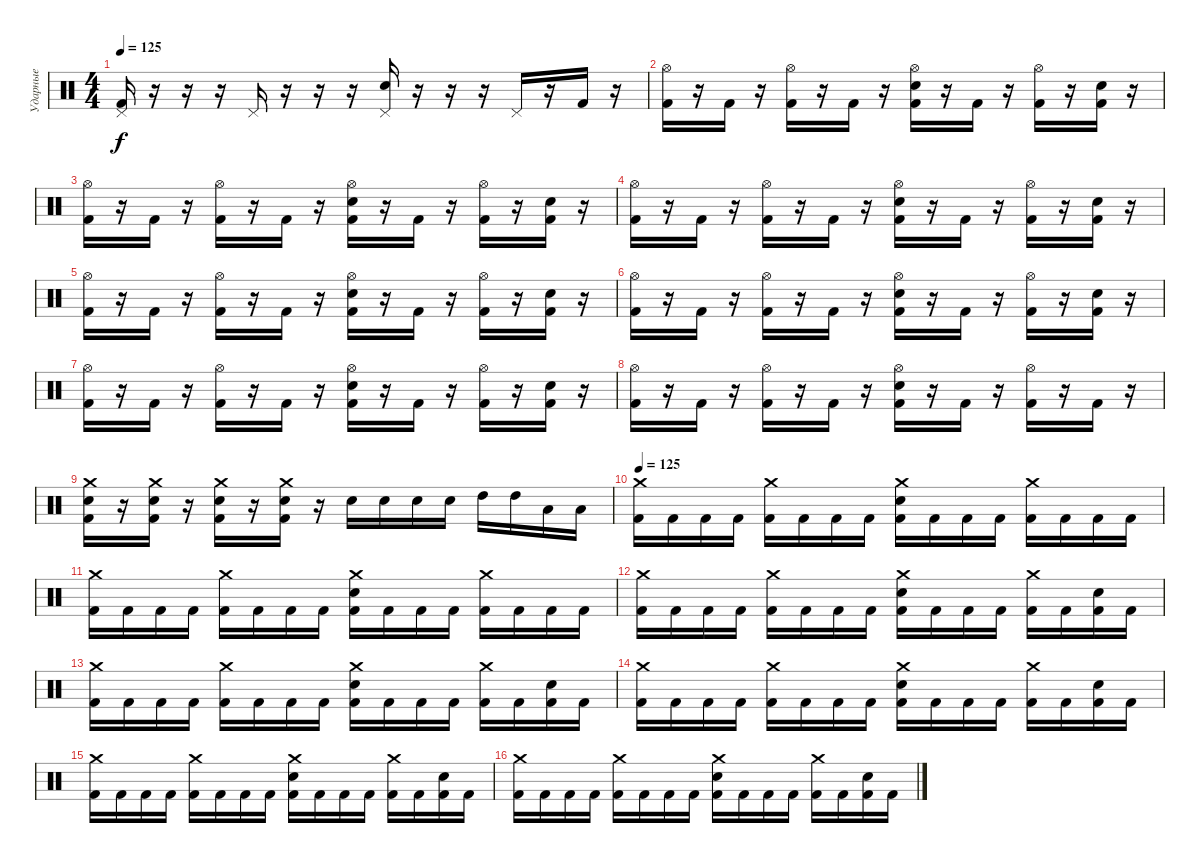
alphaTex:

\track ("Ударные" "Ударные") {instrument percussion}
\staff {score}
\articulation defaults
\ts (4 4)
\tempo 125
\clef neutral
\ks c
("Pedal Hi-Hat (hit)" "Kick (hit) 2").16{dy f} r.16 r.16 r.16 "Pedal Hi-Hat (hit)".16 r.16 r.16 r.16 ("Pedal Hi-Hat (hit)" "Electric Snare (hit)").16 r.16 r.16 r.16 "Pedal Hi-Hat (hit)".16 r.16 "Kick (hit) 2".16 r.16 |
("Hi-Hat (open)" "Kick (hit) 2").16 r.16 "Kick (hit) 2".16 r.16 ("Hi-Hat (open)" "Kick (hit) 2").16 r.16 "Kick (hit) 2".16 r.16 ("Hi-Hat (open)" "Electric Snare (hit)" "Kick (hit) 2").16 r.16 "Kick (hit) 2".16 r.16 ("Hi-Hat (open)" "Kick (hit) 2").16 r.16 ("Electric Snare (hit)" "Kick (hit) 2").16 r.16 |
("Hi-Hat (open)" "Kick (hit) 2").16 r.16 "Kick (hit) 2".16 r.16 ("Hi-Hat (open)" "Kick (hit) 2").16 r.16 "Kick (hit) 2".16 r.16 ("Hi-Hat (open)" "Electric Snare (hit)" "Kick (hit) 2").16 r.16 "Kick (hit) 2".16 r.16 ("Hi-Hat (open)" "Kick (hit) 2").16 r.16 ("Electric Snare (hit)" "Kick (hit) 2").16 r.16 |
("Hi-Hat (open)" "Kick (hit) 2").16 r.16 "Kick (hit) 2".16 r.16 ("Hi-Hat (open)" "Kick (hit) 2").16 r.16 "Kick (hit) 2".16 r.16 ("Hi-Hat (open)" "Electric Snare (hit)" "Kick (hit) 2").16 r.16 "Kick (hit) 2".16 r.16 ("Hi-Hat (open)" "Kick (hit) 2").16 r.16 ("Electric Snare (hit)" "Kick (hit) 2").16 r.16 |
("Hi-Hat (open)" "Kick (hit) 2").16 r.16 "Kick (hit) 2".16 r.16 ("Hi-Hat (open)" "Kick (hit) 2").16 r.16 "Kick (hit) 2".16 r.16 ("Hi-Hat (open)" "Electric Snare (hit)" "Kick (hit) 2").16 r.16 "Kick (hit) 2".16 r.16 ("Hi-Hat (open)" "Kick (hit) 2").16 r.16 ("Electric Snare (hit)" "Kick (hit) 2").16 r.16 |
("Hi-Hat (open)" "Kick (hit) 2").16 r.16 "Kick (hit) 2".16 r.16 ("Hi-Hat (open)" "Kick (hit) 2").16 r.16 "Kick (hit) 2".16 r.16 ("Hi-Hat (open)" "Electric Snare (hit)" "Kick (hit) 2").16 r.16 "Kick (hit) 2".16 r.16 ("Hi-Hat (open)" "Kick (hit) 2").16 r.16 ("Electric Snare (hit)" "Kick (hit) 2").16 r.16 |
("Hi-Hat (open)" "Kick (hit) 2").16 r.16 "Kick (hit) 2".16 r.16 ("Hi-Hat (open)" "Kick (hit) 2").16 r.16 "Kick (hit) 2".16 r.16 ("Hi-Hat (open)" "Electric Snare (hit)" "Kick (hit) 2").16 r.16 "Kick (hit) 2".16 r.16 ("Hi-Hat (open)" "Kick (hit) 2").16 r.16 ("Electric Snare (hit)" "Kick (hit) 2").16 r.16 |
("Hi-Hat (open)" "Kick (hit) 2").16 r.16 "Kick (hit) 2".16 r.16 ("Hi-Hat (open)" "Kick (hit) 2").16 r.16 "Kick (hit) 2".16 r.16 ("Hi-Hat (open)" "Electric Snare (hit)" "Kick (hit) 2").16 r.16 "Kick (hit) 2".16 r.16 ("Hi-Hat (open)" "Kick (hit) 2").16 r.16 "Kick (hit) 2".16 r.16 |
("Crash medium (hit)" "Electric Snare (hit)" "Kick (hit) 2").16 r.16 ("Crash medium (hit)" "Electric Snare (hit)" "Kick (hit) 2").16 r.16 ("Crash medium (hit)" "Electric Snare (hit)" "Kick (hit) 2").16 r.16 ("Crash medium (hit)" "Electric Snare (hit)" "Kick (hit) 2").16 r.16 "Electric Snare (hit)".16 "Electric Snare (hit)".16 "Electric Snare (hit)".16 "Electric Snare (hit)".16 "High Tom (hit)".16 "High Tom (hit)".16 "Low Tom (hit)".16 "Low Tom (hit)".16 |
\tempo 125
("Crash medium (hit)" "Kick (hit) 2").16 "Kick (hit) 2".16 "Kick (hit) 2".16 "Kick (hit) 2".16 ("Crash medium (hit)" "Kick (hit) 2").16 "Kick (hit) 2".16 "Kick (hit) 2".16 "Kick (hit) 2".16 ("Crash medium (hit)" "Electric Snare (hit)" "Kick (hit) 2").16 "Kick (hit) 2".16 "Kick (hit) 2".16 "Kick (hit) 2".16 ("Crash medium (hit)" "Kick (hit) 2").16 "Kick (hit) 2".16 "Kick (hit) 2".16 "Kick (hit) 2".16 |
("Crash medium (hit)" "Kick (hit) 2").16 "Kick (hit) 2".16 "Kick (hit) 2".16 "Kick (hit) 2".16 ("Crash medium (hit)" "Kick (hit) 2").16 "Kick (hit) 2".16 "Kick (hit) 2".16 "Kick (hit) 2".16 ("Crash medium (hit)" "Electric Snare (hit)" "Kick (hit) 2").16 "Kick (hit) 2".16 "Kick (hit) 2".16 "Kick (hit) 2".16 ("Crash medium (hit)" "Kick (hit) 2").16 "Kick (hit) 2".16 "Kick (hit) 2".16 "Kick (hit) 2".16 |
("Crash medium (hit)" "Kick (hit) 2").16 "Kick (hit) 2".16 "Kick (hit) 2".16 "Kick (hit) 2".16 ("Crash medium (hit)" "Kick (hit) 2").16 "Kick (hit) 2".16 "Kick (hit) 2".16 "Kick (hit) 2".16 ("Crash medium (hit)" "Electric Snare (hit)" "Kick (hit) 2").16 "Kick (hit) 2".16 "Kick (hit) 2".16 "Kick (hit) 2".16 ("Crash medium (hit)" "Kick (hit) 2").16 "Kick (hit) 2".16 ("Electric Snare (hit)" "Kick (hit) 2").16 "Kick (hit) 2".16 |
("Crash medium (hit)" "Kick (hit) 2").16 "Kick (hit) 2".16 "Kick (hit) 2".16 "Kick (hit) 2".16 ("Crash medium (hit)" "Kick (hit) 2").16 "Kick (hit) 2".16 "Kick (hit) 2".16 "Kick (hit) 2".16 ("Crash medium (hit)" "Electric Snare (hit)" "Kick (hit) 2").16 "Kick (hit) 2".16 "Kick (hit) 2".16 "Kick (hit) 2".16 ("Crash medium (hit)" "Kick (hit) 2").16 "Kick (hit) 2".16 ("Electric Snare (hit)" "Kick (hit) 2").16 "Kick (hit) 2".16 |
("Crash medium (hit)" "Kick (hit) 2").16 "Kick (hit) 2".16 "Kick (hit) 2".16 "Kick (hit) 2".16 ("Crash medium (hit)" "Kick (hit) 2").16 "Kick (hit) 2".16 "Kick (hit) 2".16 "Kick (hit) 2".16 ("Crash medium (hit)" "Electric Snare (hit)" "Kick (hit) 2").16 "Kick (hit) 2".16 "Kick (hit) 2".16 "Kick (hit) 2".16 ("Crash medium (hit)" "Kick (hit) 2").16 "Kick (hit) 2".16 ("Electric Snare (hit)" "Kick (hit) 2").16 "Kick (hit) 2".16 |
("Crash medium (hit)" "Kick (hit) 2").16 "Kick (hit) 2".16 "Kick (hit) 2".16 "Kick (hit) 2".16 ("Crash medium (hit)" "Kick (hit) 2").16 "Kick (hit) 2".16 "Kick (hit) 2".16 "Kick (hit) 2".16 ("Crash medium (hit)" "Electric Snare (hit)" "Kick (hit) 2").16 "Kick (hit) 2".16 "Kick (hit) 2".16 "Kick (hit) 2".16 ("Crash medium (hit)" "Kick (hit) 2").16 "Kick (hit) 2".16 ("Electric Snare (hit)" "Kick (hit) 2").16 "Kick (hit) 2".16 |
("Crash medium (hit)" "Kick (hit) 2").16 "Kick (hit) 2".16 "Kick (hit) 2".16 "Kick (hit) 2".16 ("Crash medium (hit)" "Kick (hit) 2").16 "Kick (hit) 2".16 "Kick (hit) 2".16 "Kick (hit) 2".16 ("Crash medium (hit)" "Electric Snare (hit)" "Kick (hit) 2").16 "Kick (hit) 2".16 "Kick (hit) 2".16 "Kick (hit) 2".16 ("Crash medium (hit)" "Kick (hit) 2").16 "Kick (hit) 2".16 ("Electric Snare (hit)" "Kick (hit) 2").16 "Kick (hit) 2".16
